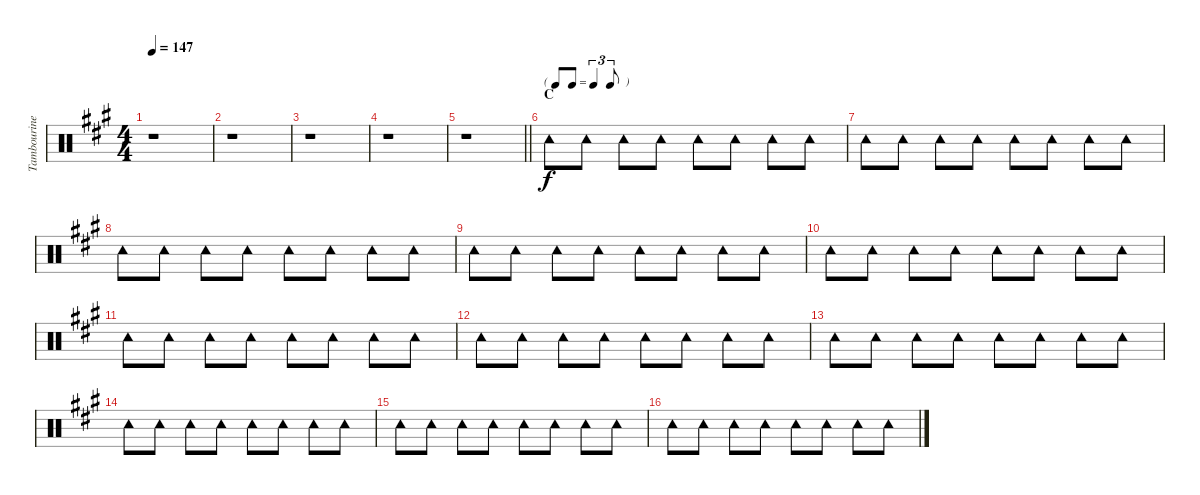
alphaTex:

\track ("Tambourine" "Tambourine") {instrument percussion}
\staff {score}
\articulation defaults
\ts (4 4)
\tempo 147
\clef neutral
\ks a
r.1{dy f} |
r.1 |
r.1 |
r.1 |
\barLineRight lightlight
r.1 |
\tf triplet8th
\section ("" "C")
"Tambourine (hit)".8 "Tambourine (hit)".8 "Tambourine (hit)".8 "Tambourine (hit)".8 "Tambourine (hit)".8 "Tambourine (hit)".8 "Tambourine (hit)".8 "Tambourine (hit)".8 |
"Tambourine (hit)".8 "Tambourine (hit)".8 "Tambourine (hit)".8 "Tambourine (hit)".8 "Tambourine (hit)".8 "Tambourine (hit)".8 "Tambourine (hit)".8 "Tambourine (hit)".8 |
"Tambourine (hit)".8 "Tambourine (hit)".8 "Tambourine (hit)".8 "Tambourine (hit)".8 "Tambourine (hit)".8 "Tambourine (hit)".8 "Tambourine (hit)".8 "Tambourine (hit)".8 |
"Tambourine (hit)".8 "Tambourine (hit)".8 "Tambourine (hit)".8 "Tambourine (hit)".8 "Tambourine (hit)".8 "Tambourine (hit)".8 "Tambourine (hit)".8 "Tambourine (hit)".8 |
"Tambourine (hit)".8 "Tambourine (hit)".8 "Tambourine (hit)".8 "Tambourine (hit)".8 "Tambourine (hit)".8 "Tambourine (hit)".8 "Tambourine (hit)".8 "Tambourine (hit)".8 |
"Tambourine (hit)".8 "Tambourine (hit)".8 "Tambourine (hit)".8 "Tambourine (hit)".8 "Tambourine (hit)".8 "Tambourine (hit)".8 "Tambourine (hit)".8 "Tambourine (hit)".8 |
"Tambourine (hit)".8 "Tambourine (hit)".8 "Tambourine (hit)".8 "Tambourine (hit)".8 "Tambourine (hit)".8 "Tambourine (hit)".8 "Tambourine (hit)".8 "Tambourine (hit)".8 |
"Tambourine (hit)".8 "Tambourine (hit)".8 "Tambourine (hit)".8 "Tambourine (hit)".8 "Tambourine (hit)".8 "Tambourine (hit)".8 "Tambourine (hit)".8 "Tambourine (hit)".8 |
"Tambourine (hit)".8 "Tambourine (hit)".8 "Tambourine (hit)".8 "Tambourine (hit)".8 "Tambourine (hit)".8 "Tambourine (hit)".8 "Tambourine (hit)".8 "Tambourine (hit)".8 |
"Tambourine (hit)".8 "Tambourine (hit)".8 "Tambourine (hit)".8 "Tambourine (hit)".8 "Tambourine (hit)".8 "Tambourine (hit)".8 "Tambourine (hit)".8 "Tambourine (hit)".8 |
"Tambourine (hit)".8 "Tambourine (hit)".8 "Tambourine (hit)".8 "Tambourine (hit)".8 "Tambourine (hit)".8 "Tambourine (hit)".8 "Tambourine (hit)".8 "Tambourine (hit)".8
